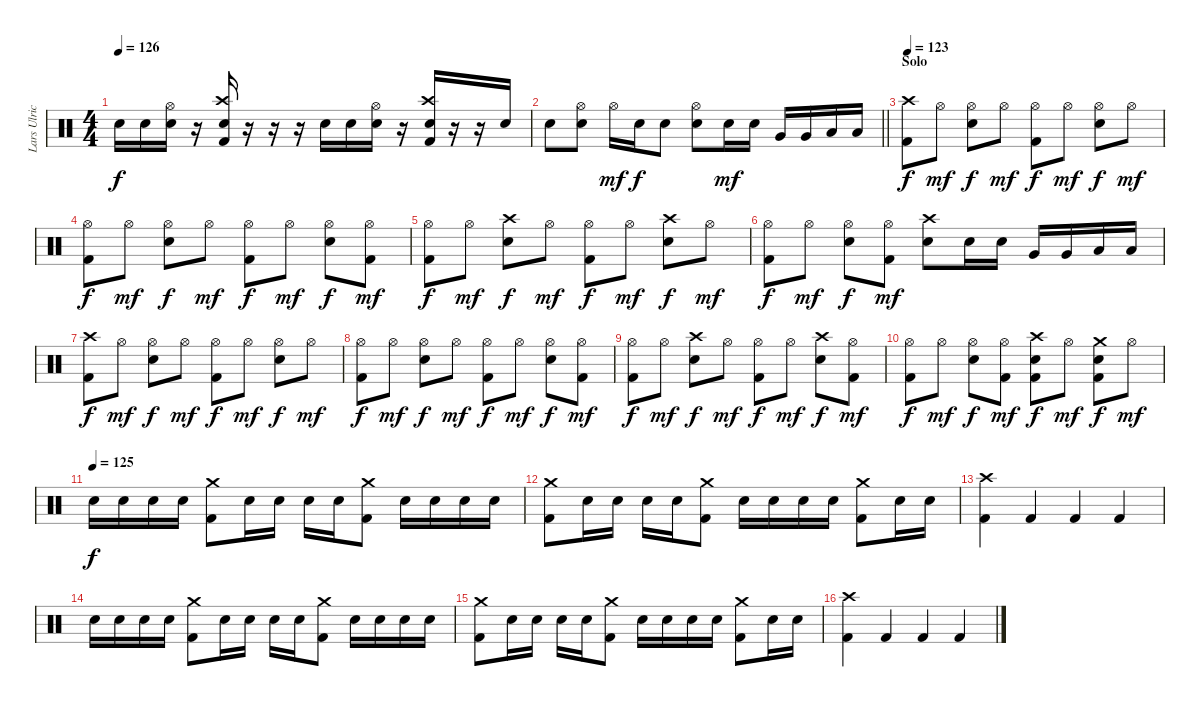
\track ("Lars Ulrich" "Lars Ulric") {instrument percussion}
\staff {score}
\articulation defaults
\ts (4 4)
\tempo 126
\clef neutral
\ks c "Snare (hit) 2".16{dy f} "Snare (hit) 2".16
("Hi-Hat (open)" "Snare (hit) 2").16 r.16 ("Crash high (hit)" "Snare (hit) 2" "Kick (hit) 2").16 r.16 r.16 r.16 "Snare (hit) 2".16 "Snare (hit) 2".16 ("Hi-Hat (open)" "Snare (hit) 2").16 r.16 ("Crash high (hit)" "Snare (hit) 2" "Kick (hit) 2").16 r.16 r.16 "Snare (hit) 2".16 |
\barLineRight lightlight "Snare (hit) 2".8
("Hi-Hat (open)" "Snare (hit) 2").8 "Hi-Hat (open)".16{dy mf} "Snare (hit) 2".16{dy f} "Snare (hit) 2".8 ("Hi-Hat (open)" "Snare (hit) 2").8 "Snare (hit) 2".16{dy mf} "Snare (hit) 2".16 "Very Low Tom (hit)".16 "Very Low Tom (hit)".16 "Low Floor Tom (hit)".16 "Low Floor Tom (hit)".16 |
\section ("" "Solo")
\tempo 123
("Crash high (hit)" "Kick (hit) 2").8{dy f} "Hi-Hat (open)".8{dy mf} ("Hi-Hat (open)" "Snare (hit) 2").8{dy f} "Hi-Hat (open)".8{dy mf} ("Hi-Hat (open)" "Kick (hit) 2").8{dy f} "Hi-Hat (open)".8{dy mf} ("Hi-Hat (open)" "Snare (hit) 2").8{dy f} "Hi-Hat (open)".8{dy mf} |
("Hi-Hat (open)" "Kick (hit) 2").8{dy f} "Hi-Hat (open)".8{dy mf} ("Hi-Hat (open)" "Snare (hit) 2").8{dy f} "Hi-Hat (open)".8{dy mf} ("Hi-Hat (open)" "Kick (hit) 2").8{dy f} "Hi-Hat (open)".8{dy mf} ("Hi-Hat (open)" "Snare (hit) 2").8{dy f} ("Hi-Hat (open)" "Kick (hit) 2").8{dy mf} |
("Hi-Hat (open)" "Kick (hit) 2").8{dy f} "Hi-Hat (open)".8{dy mf} ("Crash high (hit)" "Snare (hit) 2").8{dy f} "Hi-Hat (open)".8{dy mf} ("Hi-Hat (open)" "Kick (hit) 2").8{dy f} "Hi-Hat (open)".8{dy mf} ("Crash high (hit)" "Snare (hit) 2").8{dy f} "Hi-Hat (open)".8{dy mf} |
("Hi-Hat (open)" "Kick (hit) 2").8{dy f} "Hi-Hat (open)".8{dy mf} ("Hi-Hat (open)" "Snare (hit) 2").8{dy f} ("Hi-Hat (open)" "Kick (hit) 2").8{dy mf} ("Crash high (hit)" "Snare (hit) 2").8 "Snare (hit) 2".16 "Snare (hit) 2".16 "Very Low Tom (hit)".16 "Very Low Tom (hit)".16 "Low Floor Tom (hit)".16 "Low Floor Tom (hit)".16 |
("Crash high (hit)" "Kick (hit) 2").8{dy f} "Hi-Hat (open)".8{dy mf} ("Hi-Hat (open)" "Snare (hit) 2").8{dy f} "Hi-Hat (open)".8{dy mf} ("Hi-Hat (open)" "Kick (hit) 2").8{dy f} "Hi-Hat (open)".8{dy mf} ("Hi-Hat (open)" "Snare (hit) 2").8{dy f} "Hi-Hat (open)".8{dy mf} |
("Hi-Hat (open)" "Kick (hit) 2").8{dy f} "Hi-Hat (open)".8{dy mf} ("Hi-Hat (open)" "Snare (hit) 2").8{dy f} "Hi-Hat (open)".8{dy mf} ("Hi-Hat (open)" "Kick (hit) 2").8{dy f} "Hi-Hat (open)".8{dy mf} ("Hi-Hat (open)" "Snare (hit) 2").8{dy f} ("Hi-Hat (open)" "Kick (hit) 2").8{dy mf} |
("Hi-Hat (open)" "Kick (hit) 2").8{dy f} "Hi-Hat (open)".8{dy mf} ("Crash high (hit)" "Snare (hit) 2").8{dy f} "Hi-Hat (open)".8{dy mf} ("Hi-Hat (open)" "Kick (hit) 2").8{dy f} "Hi-Hat (open)".8{dy mf} ("Crash high (hit)" "Snare (hit) 2").8{dy f} ("Hi-Hat (open)" "Kick (hit) 2").8{dy mf} |
("Hi-Hat (open)" "Kick (hit) 2").8{dy f} "Hi-Hat (open)".8{dy mf} ("Hi-Hat (open)" "Snare (hit) 2").8{dy f} ("Hi-Hat (open)" "Kick (hit) 2").8{dy mf} ("Crash high (hit)" "Snare (hit) 2" "Kick (hit) 2").8{dy f} "Hi-Hat (open)".8{dy mf} ("Crash medium (hit)" "Snare (hit) 2" "Kick (hit) 2").8{dy f} "Hi-Hat (open)".8{dy mf} |
\tempo (125)
"Snare (hit) 2".16{dy f} "Snare (hit) 2".16 "Snare (hit) 2".16 "Snare (hit) 2".16 ("Crash medium (hit)" "Kick (hit) 2").8 "Snare (hit) 2".16 "Snare (hit) 2".16 "Snare (hit) 2".16 "Snare (hit) 2".16 ("Crash medium (hit)" "Kick (hit) 2").8 "Snare (hit) 2".16 "Snare (hit) 2".16 "Snare (hit) 2".16 "Snare (hit) 2".16 |
("Crash medium (hit)" "Kick (hit) 2").8 "Snare (hit) 2".16 "Snare (hit) 2".16 "Snare (hit) 2".16 "Snare (hit) 2".16 ("Crash medium (hit)" "Kick (hit) 2").8 "Snare (hit) 2".16 "Snare (hit) 2".16 "Snare (hit) 2".16 "Snare (hit) 2".16 ("Crash medium (hit)" "Kick (hit) 2").8 "Snare (hit) 2".16 "Snare (hit) 2".16 |
("Crash high (hit)" "Kick (hit) 2").4 "Kick (hit) 2".4 "Kick (hit) 2".4 "Kick (hit) 2".4 |
"Snare (hit) 2".16 "Snare (hit) 2".16 "Snare (hit) 2".16 "Snare (hit) 2".16 ("Crash medium (hit)" "Kick (hit) 2").8 "Snare (hit) 2".16 "Snare (hit) 2".16 "Snare (hit) 2".16 "Snare (hit) 2".16 ("Crash medium (hit)" "Kick (hit) 2").8 "Snare (hit) 2".16 "Snare (hit) 2".16 "Snare (hit) 2".16 "Snare (hit) 2".16 |
("Crash medium (hit)" "Kick (hit) 2").8 "Snare (hit) 2".16 "Snare (hit) 2".16 "Snare (hit) 2".16 "Snare (hit) 2".16 ("Crash medium (hit)" "Kick (hit) 2").8 "Snare (hit) 2".16 "Snare (hit) 2".16 "Snare (hit) 2".16 "Snare (hit) 2".16 ("Crash medium (hit)" "Kick (hit) 2").8 "Snare (hit) 2".16 "Snare (hit) 2".16 |
("Crash high (hit)" "Kick (hit) 2").4 "Kick (hit) 2".4 "Kick (hit) 2".4 "Kick (hit) 2".4
